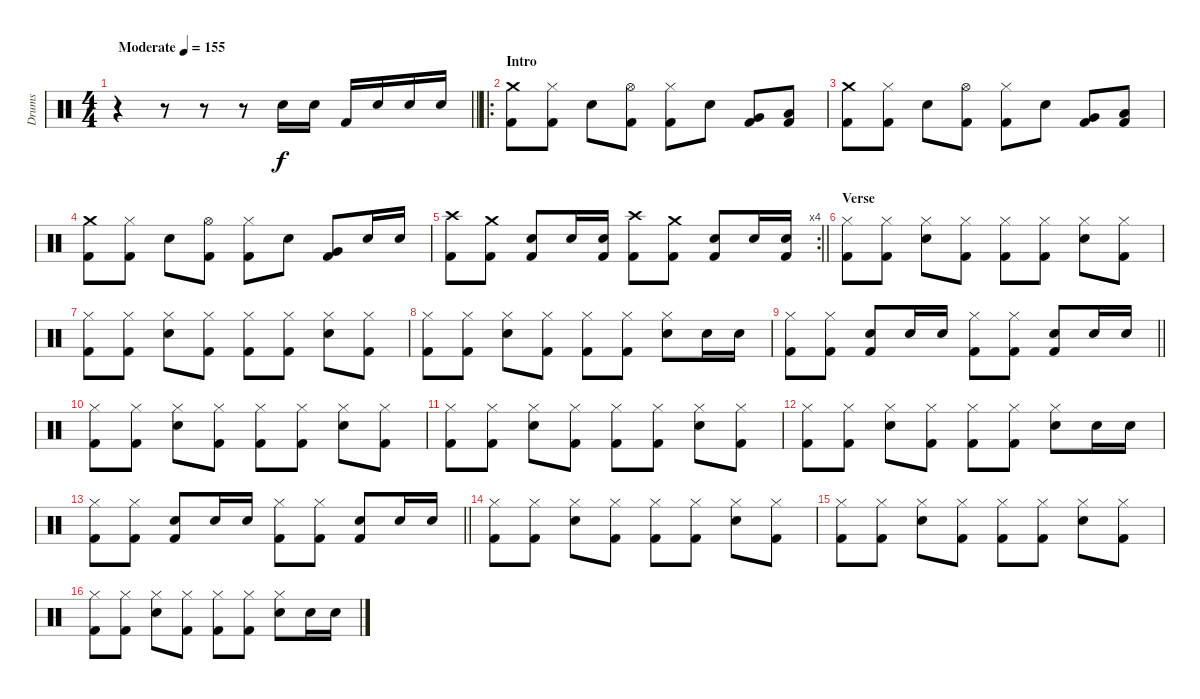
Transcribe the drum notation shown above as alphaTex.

\track ("Drums" "Drums") {instrument percussion}
\staff {score}
\articulation defaults
\ts (4 4)
\tempo (155 "Moderate")
\clef neutral
\barLineRight lightlight
\ks c
r.4{dy f} r.8 r.8 r.8 "Snare (hit) 2".16 "Snare (hit) 2".16 "Kick (hit) 2".16 "Snare (hit) 2".16 "Snare (hit) 2".16 "Snare (hit) 2".16 |
\ro
\section ("" "Intro")
("Crash medium (hit)" "Kick (hit) 2").8 ("Hi-Hat (closed)" "Kick (hit) 2").8 "Snare (hit) 2".8 ("Hi-Hat (open)" "Kick (hit) 2").8 ("Hi-Hat (closed)" "Kick (hit) 2").8 "Snare (hit) 2".8 ("Very Low Tom (hit)" "Kick (hit) 2").8 ("Low Floor Tom (hit)" "Kick (hit) 2").8 |
("Crash medium (hit)" "Kick (hit) 2").8 ("Hi-Hat (closed)" "Kick (hit) 2").8 "Snare (hit) 2".8 ("Hi-Hat (open)" "Kick (hit) 2").8 ("Hi-Hat (closed)" "Kick (hit) 2").8 "Snare (hit) 2".8 ("Very Low Tom (hit)" "Kick (hit) 2").8 ("Low Floor Tom (hit)" "Kick (hit) 2").8 |
("Crash medium (hit)" "Kick (hit) 2").8 ("Hi-Hat (closed)" "Kick (hit) 2").8 "Snare (hit) 2".8 ("Hi-Hat (open)" "Kick (hit) 2").8 ("Hi-Hat (closed)" "Kick (hit) 2").8 "Snare (hit) 2".8 ("Very Low Tom (hit)" "Kick (hit) 2").8 "Snare (hit) 2".16 "Snare (hit) 2".16 |
\rc 4
\barLineRight lightlight
("Crash high (hit)" "Kick (hit) 2").8 ("Crash medium (hit)" "Kick (hit) 2").8 ("Snare (hit) 2" "Kick (hit) 2").8 "Snare (hit) 2".16 ("Snare (hit) 2" "Kick (hit) 2").16 ("Crash high (hit)" "Kick (hit) 2").8 ("Crash medium (hit)" "Kick (hit) 2").8 ("Snare (hit) 2" "Kick (hit) 2").8 "Snare (hit) 2".16 ("Snare (hit) 2" "Kick (hit) 2").16 |
\section ("" "Verse")
("Hi-Hat (closed)" "Kick (hit) 2").8 ("Hi-Hat (closed)" "Kick (hit) 2").8 ("Hi-Hat (closed)" "Snare (hit) 2").8 ("Hi-Hat (closed)" "Kick (hit) 2").8 ("Hi-Hat (closed)" "Kick (hit) 2").8 ("Hi-Hat (closed)" "Kick (hit) 2").8 ("Hi-Hat (closed)" "Snare (hit) 2").8 ("Hi-Hat (closed)" "Kick (hit) 2").8 |
("Hi-Hat (closed)" "Kick (hit) 2").8 ("Hi-Hat (closed)" "Kick (hit) 2").8 ("Hi-Hat (closed)" "Snare (hit) 2").8 ("Hi-Hat (closed)" "Kick (hit) 2").8 ("Hi-Hat (closed)" "Kick (hit) 2").8 ("Hi-Hat (closed)" "Kick (hit) 2").8 ("Hi-Hat (closed)" "Snare (hit) 2").8 ("Hi-Hat (closed)" "Kick (hit) 2").8 |
("Hi-Hat (closed)" "Kick (hit) 2").8 ("Hi-Hat (closed)" "Kick (hit) 2").8 ("Hi-Hat (closed)" "Snare (hit) 2").8 ("Hi-Hat (closed)" "Kick (hit) 2").8 ("Hi-Hat (closed)" "Kick (hit) 2").8 ("Hi-Hat (closed)" "Kick (hit) 2").8 ("Hi-Hat (closed)" "Snare (hit) 2").8 "Snare (hit) 2".16 "Snare (hit) 2".16 |
\barLineRight lightlight
("Hi-Hat (closed)" "Kick (hit) 2").8 ("Hi-Hat (closed)" "Kick (hit) 2").8 ("Snare (hit) 2" "Kick (hit) 2").8 "Snare (hit) 2".16 "Snare (hit) 2".16 ("Hi-Hat (closed)" "Kick (hit) 2").8 ("Hi-Hat (closed)" "Kick (hit) 2").8 ("Snare (hit) 2" "Kick (hit) 2").8 "Snare (hit) 2".16 "Snare (hit) 2".16 |
("Hi-Hat (closed)" "Kick (hit) 2").8 ("Hi-Hat (closed)" "Kick (hit) 2").8 ("Hi-Hat (closed)" "Snare (hit) 2").8 ("Hi-Hat (closed)" "Kick (hit) 2").8 ("Hi-Hat (closed)" "Kick (hit) 2").8 ("Hi-Hat (closed)" "Kick (hit) 2").8 ("Hi-Hat (closed)" "Snare (hit) 2").8 ("Hi-Hat (closed)" "Kick (hit) 2").8 |
("Hi-Hat (closed)" "Kick (hit) 2").8 ("Hi-Hat (closed)" "Kick (hit) 2").8 ("Hi-Hat (closed)" "Snare (hit) 2").8 ("Hi-Hat (closed)" "Kick (hit) 2").8 ("Hi-Hat (closed)" "Kick (hit) 2").8 ("Hi-Hat (closed)" "Kick (hit) 2").8 ("Hi-Hat (closed)" "Snare (hit) 2").8 ("Hi-Hat (closed)" "Kick (hit) 2").8 |
("Hi-Hat (closed)" "Kick (hit) 2").8 ("Hi-Hat (closed)" "Kick (hit) 2").8 ("Hi-Hat (closed)" "Snare (hit) 2").8 ("Hi-Hat (closed)" "Kick (hit) 2").8 ("Hi-Hat (closed)" "Kick (hit) 2").8 ("Hi-Hat (closed)" "Kick (hit) 2").8 ("Hi-Hat (closed)" "Snare (hit) 2").8 "Snare (hit) 2".16 "Snare (hit) 2".16 |
\barLineRight lightlight
("Hi-Hat (closed)" "Kick (hit) 2").8 ("Hi-Hat (closed)" "Kick (hit) 2").8 ("Snare (hit) 2" "Kick (hit) 2").8 "Snare (hit) 2".16 "Snare (hit) 2".16 ("Hi-Hat (closed)" "Kick (hit) 2").8 ("Hi-Hat (closed)" "Kick (hit) 2").8 ("Snare (hit) 2" "Kick (hit) 2").8 "Snare (hit) 2".16 "Snare (hit) 2".16 |
("Hi-Hat (closed)" "Kick (hit) 2").8 ("Hi-Hat (closed)" "Kick (hit) 2").8 ("Hi-Hat (closed)" "Snare (hit) 2").8 ("Hi-Hat (closed)" "Kick (hit) 2").8 ("Hi-Hat (closed)" "Kick (hit) 2").8 ("Hi-Hat (closed)" "Kick (hit) 2").8 ("Hi-Hat (closed)" "Snare (hit) 2").8 ("Hi-Hat (closed)" "Kick (hit) 2").8 |
("Hi-Hat (closed)" "Kick (hit) 2").8 ("Hi-Hat (closed)" "Kick (hit) 2").8 ("Hi-Hat (closed)" "Snare (hit) 2").8 ("Hi-Hat (closed)" "Kick (hit) 2").8 ("Hi-Hat (closed)" "Kick (hit) 2").8 ("Hi-Hat (closed)" "Kick (hit) 2").8 ("Hi-Hat (closed)" "Snare (hit) 2").8 ("Hi-Hat (closed)" "Kick (hit) 2").8 |
("Hi-Hat (closed)" "Kick (hit) 2").8 ("Hi-Hat (closed)" "Kick (hit) 2").8 ("Hi-Hat (closed)" "Snare (hit) 2").8 ("Hi-Hat (closed)" "Kick (hit) 2").8 ("Hi-Hat (closed)" "Kick (hit) 2").8 ("Hi-Hat (closed)" "Kick (hit) 2").8 ("Hi-Hat (closed)" "Snare (hit) 2").8 "Snare (hit) 2".16 "Snare (hit) 2".16
